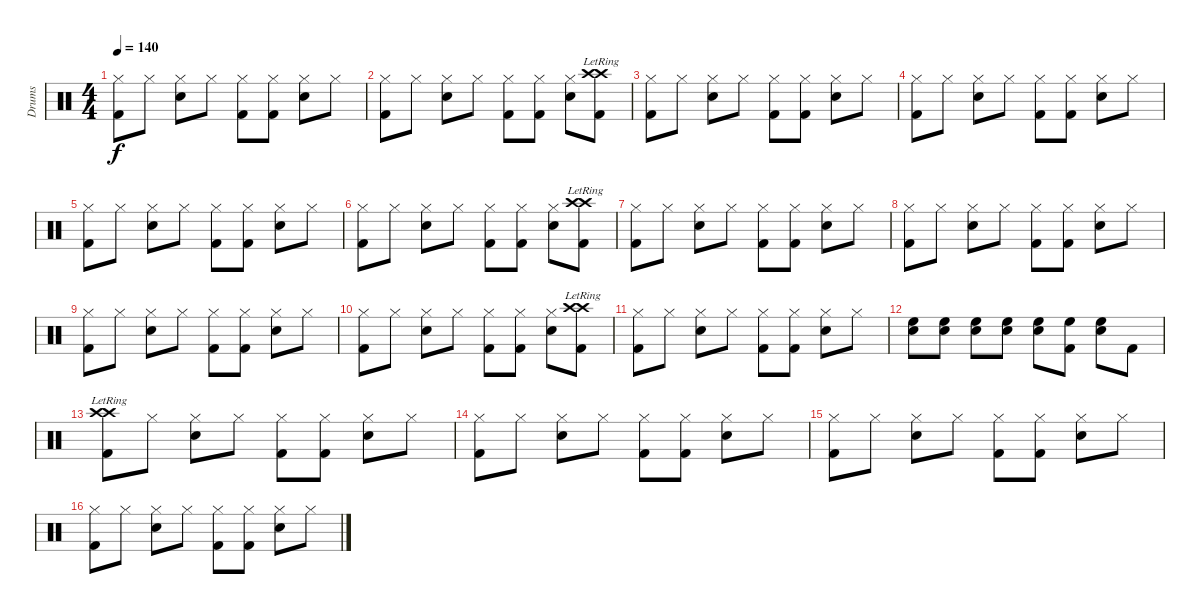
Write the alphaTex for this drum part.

\track ("Drums" "Drums") {instrument percussion}
\staff {score}
\articulation defaults
\ts (4 4)
\tempo 140
\clef neutral
\ks c
("Hi-Hat (closed)" "Kick (hit) 2").8{dy f} "Hi-Hat (closed)".8 ("Hi-Hat (closed)" "Snare (hit) 2").8 "Hi-Hat (closed)".8 ("Hi-Hat (closed)" "Kick (hit) 2").8 ("Hi-Hat (closed)" "Kick (hit) 2").8 ("Hi-Hat (closed)" "Snare (hit) 2").8 "Hi-Hat (closed)".8 |
("Hi-Hat (closed)" "Kick (hit) 2").8 "Hi-Hat (closed)".8 ("Hi-Hat (closed)" "Snare (hit) 2").8 "Hi-Hat (closed)".8 ("Hi-Hat (closed)" "Kick (hit) 2").8 ("Hi-Hat (closed)" "Kick (hit) 2").8 ("Hi-Hat (closed)" "Snare (hit) 2").8 ("Crash high (hit)"{lr} "Crash high (hit)"{lr} "Kick (hit) 2").8 |
("Hi-Hat (closed)" "Kick (hit) 2").8 "Hi-Hat (closed)".8 ("Hi-Hat (closed)" "Snare (hit) 2").8 "Hi-Hat (closed)".8 ("Hi-Hat (closed)" "Kick (hit) 2").8 ("Hi-Hat (closed)" "Kick (hit) 2").8 ("Hi-Hat (closed)" "Snare (hit) 2").8 "Hi-Hat (closed)".8 |
("Hi-Hat (closed)" "Kick (hit) 2").8 "Hi-Hat (closed)".8 ("Hi-Hat (closed)" "Snare (hit) 2").8 "Hi-Hat (closed)".8 ("Hi-Hat (closed)" "Kick (hit) 2").8 ("Hi-Hat (closed)" "Kick (hit) 2").8 ("Hi-Hat (closed)" "Snare (hit) 2").8 "Hi-Hat (closed)".8 |
("Hi-Hat (closed)" "Kick (hit) 2").8 "Hi-Hat (closed)".8 ("Hi-Hat (closed)" "Snare (hit) 2").8 "Hi-Hat (closed)".8 ("Hi-Hat (closed)" "Kick (hit) 2").8 ("Hi-Hat (closed)" "Kick (hit) 2").8 ("Hi-Hat (closed)" "Snare (hit) 2").8 "Hi-Hat (closed)".8 |
("Hi-Hat (closed)" "Kick (hit) 2").8 "Hi-Hat (closed)".8 ("Hi-Hat (closed)" "Snare (hit) 2").8 "Hi-Hat (closed)".8 ("Hi-Hat (closed)" "Kick (hit) 2").8 ("Hi-Hat (closed)" "Kick (hit) 2").8 ("Hi-Hat (closed)" "Snare (hit) 2").8 ("Crash high (hit)"{lr} "Crash high (hit)"{lr} "Kick (hit) 2").8 |
("Hi-Hat (closed)" "Kick (hit) 2").8 "Hi-Hat (closed)".8 ("Hi-Hat (closed)" "Snare (hit) 2").8 "Hi-Hat (closed)".8 ("Hi-Hat (closed)" "Kick (hit) 2").8 ("Hi-Hat (closed)" "Kick (hit) 2").8 ("Hi-Hat (closed)" "Snare (hit) 2").8 "Hi-Hat (closed)".8 |
("Hi-Hat (closed)" "Kick (hit) 2").8 "Hi-Hat (closed)".8 ("Hi-Hat (closed)" "Snare (hit) 2").8 "Hi-Hat (closed)".8 ("Hi-Hat (closed)" "Kick (hit) 2").8 ("Hi-Hat (closed)" "Kick (hit) 2").8 ("Hi-Hat (closed)" "Snare (hit) 2").8 "Hi-Hat (closed)".8 |
("Hi-Hat (closed)" "Kick (hit) 2").8 "Hi-Hat (closed)".8 ("Hi-Hat (closed)" "Snare (hit) 2").8 "Hi-Hat (closed)".8 ("Hi-Hat (closed)" "Kick (hit) 2").8 ("Hi-Hat (closed)" "Kick (hit) 2").8 ("Hi-Hat (closed)" "Snare (hit) 2").8 "Hi-Hat (closed)".8 |
("Hi-Hat (closed)" "Kick (hit) 2").8 "Hi-Hat (closed)".8 ("Hi-Hat (closed)" "Snare (hit) 2").8 "Hi-Hat (closed)".8 ("Hi-Hat (closed)" "Kick (hit) 2").8 ("Hi-Hat (closed)" "Kick (hit) 2").8 ("Hi-Hat (closed)" "Snare (hit) 2").8 ("Crash high (hit)"{lr} "Crash high (hit)"{lr} "Kick (hit) 2").8 |
("Hi-Hat (closed)" "Kick (hit) 2").8 "Hi-Hat (closed)".8 ("Hi-Hat (closed)" "Snare (hit) 2").8 "Hi-Hat (closed)".8 ("Hi-Hat (closed)" "Kick (hit) 2").8 ("Hi-Hat (closed)" "Kick (hit) 2").8 ("Hi-Hat (closed)" "Snare (hit) 2").8 "Hi-Hat (closed)".8 |
("High Floor Tom (hit)" "Snare (hit) 2").8 ("High Floor Tom (hit)" "Snare (hit) 2").8 ("High Floor Tom (hit)" "Snare (hit) 2").8 ("High Floor Tom (hit)" "Snare (hit) 2").8 ("High Floor Tom (hit)" "Snare (hit) 2").8 ("High Floor Tom (hit)" "Kick (hit) 2").8 ("High Floor Tom (hit)" "Snare (hit) 2").8 "Kick (hit) 2".8 |
("Crash high (hit)"{lr} "Crash high (hit)"{lr} "Kick (hit) 2").8 "Hi-Hat (closed)".8 ("Hi-Hat (closed)" "Snare (hit) 2").8 "Hi-Hat (closed)".8 ("Hi-Hat (closed)" "Kick (hit) 2").8 ("Hi-Hat (closed)" "Kick (hit) 2").8 ("Hi-Hat (closed)" "Snare (hit) 2").8 "Hi-Hat (closed)".8 |
("Hi-Hat (closed)" "Kick (hit) 2").8 "Hi-Hat (closed)".8 ("Hi-Hat (closed)" "Snare (hit) 2").8 "Hi-Hat (closed)".8 ("Hi-Hat (closed)" "Kick (hit) 2").8 ("Hi-Hat (closed)" "Kick (hit) 2").8 ("Hi-Hat (closed)" "Snare (hit) 2").8 "Hi-Hat (closed)".8 |
("Hi-Hat (closed)" "Kick (hit) 2").8 "Hi-Hat (closed)".8 ("Hi-Hat (closed)" "Snare (hit) 2").8 "Hi-Hat (closed)".8 ("Hi-Hat (closed)" "Kick (hit) 2").8 ("Hi-Hat (closed)" "Kick (hit) 2").8 ("Hi-Hat (closed)" "Snare (hit) 2").8 "Hi-Hat (closed)".8 |
("Hi-Hat (closed)" "Kick (hit) 2").8 "Hi-Hat (closed)".8 ("Hi-Hat (closed)" "Snare (hit) 2").8 "Hi-Hat (closed)".8 ("Hi-Hat (closed)" "Kick (hit) 2").8 ("Hi-Hat (closed)" "Kick (hit) 2").8 ("Hi-Hat (closed)" "Snare (hit) 2").8 "Hi-Hat (closed)".8
